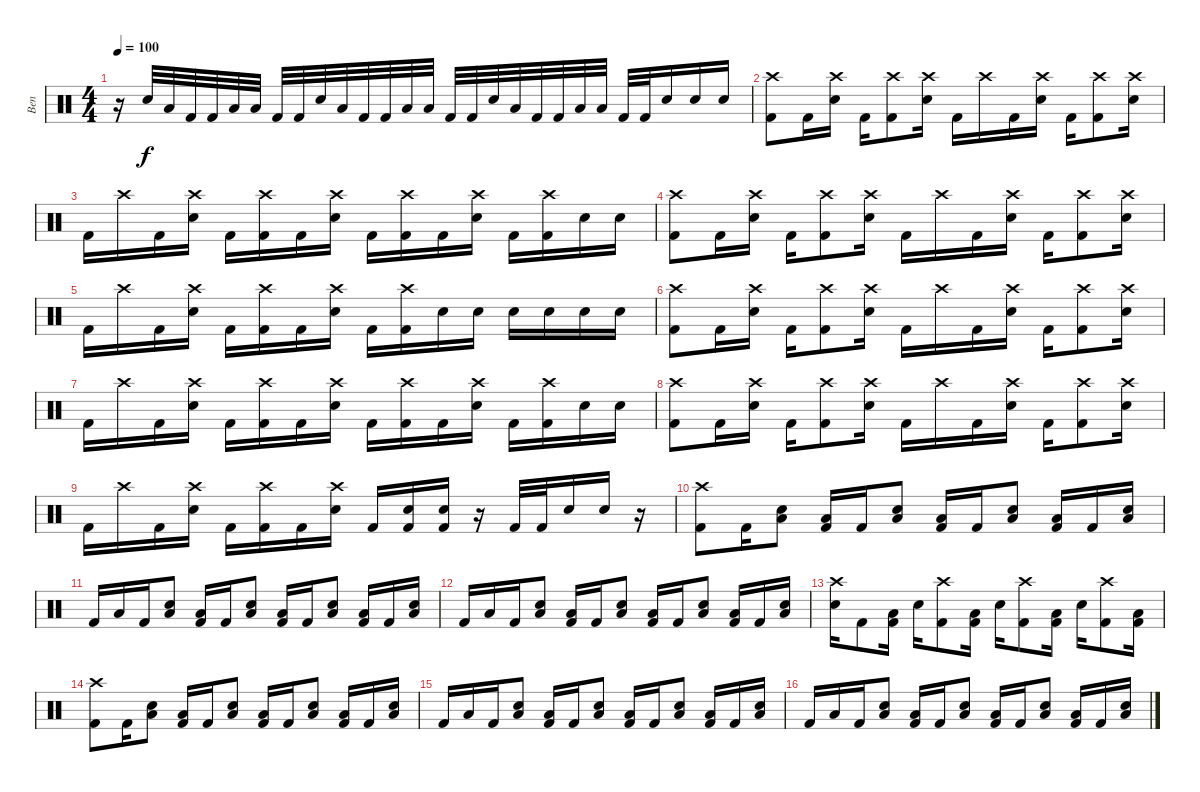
\track ("Ben" "Ben") {instrument percussion}
\staff {score}
\articulation defaults
\ts (4 4)
\tempo 100
\clef neutral
\ks c
r.16{dy f} "Electric Snare (hit)".32 "Low Tom (hit)".32 "Kick (hit) 2".32 "Kick (hit) 2".32 "Low Tom (hit)".32 "Low Floor Tom (hit)".32 "Kick (hit) 2".32 "Kick (hit) 2".32 "Electric Snare (hit)".32 "Low Tom (hit)".32 "Kick (hit) 2".32 "Kick (hit) 2".32 "Low Tom (hit)".32 "Low Floor Tom (hit)".32 "Kick (hit) 2".32 "Kick (hit) 2".32 "Electric Snare (hit)".32 "Low Tom (hit)".32 "Kick (hit) 2".32 "Kick (hit) 2".32 "Low Tom (hit)".32 "Low Floor Tom (hit)".32 "Kick (hit) 2".32 "Kick (hit) 2".32 "Electric Snare (hit)".16 "Electric Snare (hit)".16 "Electric Snare (hit)".16 |
("Crash high (hit)" "Kick (hit) 2").8 "Kick (hit) 2".16 ("Crash high (hit)" "Snare (hit) 2").16 "Kick (hit) 2".16 ("Crash high (hit)" "Kick (hit) 2").8 ("Crash high (hit)" "Snare (hit) 2").16 "Kick (hit) 2".16 "Crash high (hit)".16 "Kick (hit) 2".16 ("Crash high (hit)" "Snare (hit) 2").16 "Kick (hit) 2".16 ("Crash high (hit)" "Kick (hit) 2").8 ("Crash high (hit)" "Snare (hit) 2").16 |
"Kick (hit) 2".16 "Crash high (hit)".16 "Kick (hit) 2".16 ("Crash high (hit)" "Snare (hit) 2").16 "Kick (hit) 2".16 ("Crash high (hit)" "Kick (hit) 2").16 "Kick (hit) 2".16 ("Crash high (hit)" "Snare (hit) 2").16 "Kick (hit) 2".16 ("Crash high (hit)" "Kick (hit) 2").16 "Kick (hit) 2".16 ("Crash high (hit)" "Snare (hit) 2").16 "Kick (hit) 2".16 ("Crash high (hit)" "Kick (hit) 2").16 "Snare (hit) 2".16 "Snare (hit) 2".16 |
("Crash high (hit)" "Kick (hit) 2").8 "Kick (hit) 2".16 ("Crash high (hit)" "Snare (hit) 2").16 "Kick (hit) 2".16 ("Crash high (hit)" "Kick (hit) 2").8 ("Crash high (hit)" "Snare (hit) 2").16 "Kick (hit) 2".16 "Crash high (hit)".16 "Kick (hit) 2".16 ("Crash high (hit)" "Snare (hit) 2").16 "Kick (hit) 2".16 ("Crash high (hit)" "Kick (hit) 2").8 ("Crash high (hit)" "Snare (hit) 2").16 |
"Kick (hit) 2".16 "Crash high (hit)".16 "Kick (hit) 2".16 ("Crash high (hit)" "Snare (hit) 2").16 "Kick (hit) 2".16 ("Crash high (hit)" "Kick (hit) 2").16 "Kick (hit) 2".16 ("Crash high (hit)" "Snare (hit) 2").16 "Kick (hit) 2".16 ("Crash high (hit)" "Kick (hit) 2").16 "Snare (hit) 2".16 "Snare (hit) 2".16 "Snare (hit) 2".16 "Snare (hit) 2".16 "Snare (hit) 2".16 "Snare (hit) 2".16 |
("Crash high (hit)" "Kick (hit) 2").8 "Kick (hit) 2".16 ("Crash high (hit)" "Snare (hit) 2").16 "Kick (hit) 2".16 ("Crash high (hit)" "Kick (hit) 2").8 ("Crash high (hit)" "Snare (hit) 2").16 "Kick (hit) 2".16 "Crash high (hit)".16 "Kick (hit) 2".16 ("Crash high (hit)" "Snare (hit) 2").16 "Kick (hit) 2".16 ("Crash high (hit)" "Kick (hit) 2").8 ("Crash high (hit)" "Snare (hit) 2").16 |
"Kick (hit) 2".16 "Crash high (hit)".16 "Kick (hit) 2".16 ("Crash high (hit)" "Snare (hit) 2").16 "Kick (hit) 2".16 ("Crash high (hit)" "Kick (hit) 2").16 "Kick (hit) 2".16 ("Crash high (hit)" "Snare (hit) 2").16 "Kick (hit) 2".16 ("Crash high (hit)" "Kick (hit) 2").16 "Kick (hit) 2".16 ("Crash high (hit)" "Snare (hit) 2").16 "Kick (hit) 2".16 ("Crash high (hit)" "Kick (hit) 2").16 "Snare (hit) 2".16 "Snare (hit) 2".16 |
("Crash high (hit)" "Kick (hit) 2").8 "Kick (hit) 2".16 ("Crash high (hit)" "Snare (hit) 2").16 "Kick (hit) 2".16 ("Crash high (hit)" "Kick (hit) 2").8 ("Crash high (hit)" "Snare (hit) 2").16 "Kick (hit) 2".16 "Crash high (hit)".16 "Kick (hit) 2".16 ("Crash high (hit)" "Snare (hit) 2").16 "Kick (hit) 2".16 ("Crash high (hit)" "Kick (hit) 2").8 ("Crash high (hit)" "Snare (hit) 2").16 |
"Kick (hit) 2".16 "Crash high (hit)".16 "Kick (hit) 2".16 ("Crash high (hit)" "Snare (hit) 2").16 "Kick (hit) 2".16 ("Crash high (hit)" "Kick (hit) 2").16 "Kick (hit) 2".16 ("Crash high (hit)" "Snare (hit) 2").16 "Kick (hit) 2".16 ("Snare (hit) 2" "Kick (hit) 2").16 ("Snare (hit) 2" "Kick (hit) 2").16 r.16 "Kick (hit) 2".32 "Kick (hit) 2".32 "Snare (hit) 2".16 "Snare (hit) 2".16 r.16 |
("Crash high (hit)" "Kick (hit) 2").8 "Kick (hit) 2".16 ("Low Floor Tom (hit)" "Snare (hit) 2").8 ("Low Floor Tom (hit)" "Kick (hit) 2").16 "Kick (hit) 2".16 ("Low Floor Tom (hit)" "Snare (hit) 2").8 ("Low Floor Tom (hit)" "Kick (hit) 2").16 "Kick (hit) 2".16 ("Low Floor Tom (hit)" "Snare (hit) 2").8 ("Low Floor Tom (hit)" "Kick (hit) 2").16 "Kick (hit) 2".16 ("Low Floor Tom (hit)" "Snare (hit) 2").16 |
"Kick (hit) 2".16 "Low Floor Tom (hit)".16 "Kick (hit) 2".16 ("Low Floor Tom (hit)" "Snare (hit) 2").8 ("Low Floor Tom (hit)" "Kick (hit) 2").16 "Kick (hit) 2".16 ("Low Floor Tom (hit)" "Snare (hit) 2").8 ("Low Floor Tom (hit)" "Kick (hit) 2").16 "Kick (hit) 2".16 ("Low Floor Tom (hit)" "Snare (hit) 2").8 ("Low Floor Tom (hit)" "Kick (hit) 2").16 "Kick (hit) 2".16 ("Low Floor Tom (hit)" "Snare (hit) 2").16 |
"Kick (hit) 2".16 "Low Floor Tom (hit)".16 "Kick (hit) 2".16 ("Low Floor Tom (hit)" "Snare (hit) 2").8 ("Low Floor Tom (hit)" "Kick (hit) 2").16 "Kick (hit) 2".16 ("Low Floor Tom (hit)" "Snare (hit) 2").8 ("Low Floor Tom (hit)" "Kick (hit) 2").16 "Kick (hit) 2".16 ("Low Floor Tom (hit)" "Snare (hit) 2").8 ("Low Floor Tom (hit)" "Kick (hit) 2").16 "Kick (hit) 2".16 ("Low Floor Tom (hit)" "Snare (hit) 2").16 |
("Crash high (hit)" "Snare (hit) 2").16 "Kick (hit) 2".8 ("Low Floor Tom (hit)" "Kick (hit) 2").16 "Snare (hit) 2".16 ("Crash high (hit)" "Kick (hit) 2").8 ("Low Floor Tom (hit)" "Kick (hit) 2").16 "Snare (hit) 2".16 ("Crash high (hit)" "Kick (hit) 2").8 ("Low Floor Tom (hit)" "Kick (hit) 2").16 "Snare (hit) 2".16 ("Crash high (hit)" "Kick (hit) 2").8 ("Low Floor Tom (hit)" "Kick (hit) 2").16 |
("Crash high (hit)" "Kick (hit) 2").8 "Kick (hit) 2".16 ("Low Floor Tom (hit)" "Snare (hit) 2").8 ("Low Floor Tom (hit)" "Kick (hit) 2").16 "Kick (hit) 2".16 ("Low Floor Tom (hit)" "Snare (hit) 2").8 ("Low Floor Tom (hit)" "Kick (hit) 2").16 "Kick (hit) 2".16 ("Low Floor Tom (hit)" "Snare (hit) 2").8 ("Low Floor Tom (hit)" "Kick (hit) 2").16 "Kick (hit) 2".16 ("Low Floor Tom (hit)" "Snare (hit) 2").16 |
"Kick (hit) 2".16 "Low Floor Tom (hit)".16 "Kick (hit) 2".16 ("Low Floor Tom (hit)" "Snare (hit) 2").8 ("Low Floor Tom (hit)" "Kick (hit) 2").16 "Kick (hit) 2".16 ("Low Floor Tom (hit)" "Snare (hit) 2").8 ("Low Floor Tom (hit)" "Kick (hit) 2").16 "Kick (hit) 2".16 ("Low Floor Tom (hit)" "Snare (hit) 2").8 ("Low Floor Tom (hit)" "Kick (hit) 2").16 "Kick (hit) 2".16 ("Low Floor Tom (hit)" "Snare (hit) 2").16 |
"Kick (hit) 2".16 "Low Floor Tom (hit)".16 "Kick (hit) 2".16 ("Low Floor Tom (hit)" "Snare (hit) 2").8 ("Low Floor Tom (hit)" "Kick (hit) 2").16 "Kick (hit) 2".16 ("Low Floor Tom (hit)" "Snare (hit) 2").8 ("Low Floor Tom (hit)" "Kick (hit) 2").16 "Kick (hit) 2".16 ("Low Floor Tom (hit)" "Snare (hit) 2").8 ("Low Floor Tom (hit)" "Kick (hit) 2").16 "Kick (hit) 2".16 ("Low Floor Tom (hit)" "Snare (hit) 2").16
